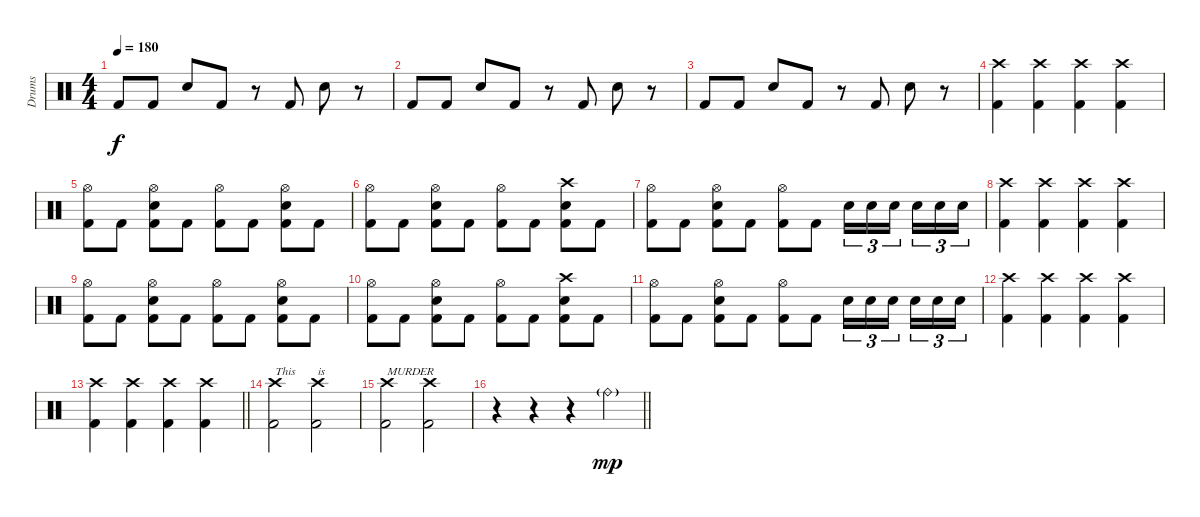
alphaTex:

\track ("Drums" "Drums") {instrument percussion}
\staff {score}
\articulation defaults
\ts (4 4)
\tempo 180
\clef neutral
\ks c "Kick (hit) 2".8{dy f} "Kick (hit) 2".8 "Electric Snare (hit)".8 "Kick (hit) 2".8
r.8 "Kick (hit) 2".8 "Electric Snare (hit)".8 r.8 |
"Kick (hit) 2".8 "Kick (hit) 2".8 "Electric Snare (hit)".8 "Kick (hit) 2".8 r.8 "Kick (hit) 2".8 "Electric Snare (hit)".8 r.8 |
"Kick (hit) 2".8 "Kick (hit) 2".8 "Electric Snare (hit)".8 "Kick (hit) 2".8 r.8 "Kick (hit) 2".8 "Electric Snare (hit)".8 r.8 |
("Crash high (hit)" "Kick (hit) 2").4 ("Crash high (hit)" "Kick (hit) 2").4 ("Crash high (hit)" "Kick (hit) 2").4 ("Crash high (hit)" "Kick (hit) 2").4 |
("Hi-Hat (open)" "Kick (hit) 2").8 "Kick (hit) 2".8 ("Hi-Hat (open)" "Electric Snare (hit)" "Kick (hit) 2").8 "Kick (hit) 2".8 ("Hi-Hat (open)" "Kick (hit) 2").8 "Kick (hit) 2".8 ("Hi-Hat (open)" "Electric Snare (hit)" "Kick (hit) 2").8 "Kick (hit) 2".8 |
("Hi-Hat (open)" "Kick (hit) 2").8 "Kick (hit) 2".8 ("Hi-Hat (open)" "Electric Snare (hit)" "Kick (hit) 2").8 "Kick (hit) 2".8 ("Hi-Hat (open)" "Kick (hit) 2").8 "Kick (hit) 2".8 ("Crash high (hit)" "Electric Snare (hit)" "Kick (hit) 2").8 "Kick (hit) 2".8 |
("Hi-Hat (open)" "Kick (hit) 2").8 "Kick (hit) 2".8 ("Hi-Hat (open)" "Electric Snare (hit)" "Kick (hit) 2").8 "Kick (hit) 2".8 ("Hi-Hat (open)" "Kick (hit) 2").8 "Kick (hit) 2".8 "Electric Snare (hit)".16{tu (3 2)} "Electric Snare (hit)".16{tu (3 2)} "Electric Snare (hit)".16{tu (3 2) beam splitsecondary} "Electric Snare (hit)".16{tu (3 2)} "Electric Snare (hit)".16{tu (3 2)} "Electric Snare (hit)".16{tu (3 2)} |
("Crash high (hit)" "Kick (hit) 2").4 ("Crash high (hit)" "Kick (hit) 2").4 ("Crash high (hit)" "Kick (hit) 2").4 ("Crash high (hit)" "Kick (hit) 2").4 |
("Hi-Hat (open)" "Kick (hit) 2").8 "Kick (hit) 2".8 ("Hi-Hat (open)" "Electric Snare (hit)" "Kick (hit) 2").8 "Kick (hit) 2".8 ("Hi-Hat (open)" "Kick (hit) 2").8 "Kick (hit) 2".8 ("Hi-Hat (open)" "Electric Snare (hit)" "Kick (hit) 2").8 "Kick (hit) 2".8 |
("Hi-Hat (open)" "Kick (hit) 2").8 "Kick (hit) 2".8 ("Hi-Hat (open)" "Electric Snare (hit)" "Kick (hit) 2").8 "Kick (hit) 2".8 ("Hi-Hat (open)" "Kick (hit) 2").8 "Kick (hit) 2".8 ("Crash high (hit)" "Electric Snare (hit)" "Kick (hit) 2").8 "Kick (hit) 2".8 |
("Hi-Hat (open)" "Kick (hit) 2").8 "Kick (hit) 2".8 ("Hi-Hat (open)" "Electric Snare (hit)" "Kick (hit) 2").8 "Kick (hit) 2".8 ("Hi-Hat (open)" "Kick (hit) 2").8 "Kick (hit) 2".8 "Electric Snare (hit)".16{tu (3 2)} "Electric Snare (hit)".16{tu (3 2)} "Electric Snare (hit)".16{tu (3 2) beam splitsecondary} "Electric Snare (hit)".16{tu (3 2)} "Electric Snare (hit)".16{tu (3 2)} "Electric Snare (hit)".16{tu (3 2)} |
("Crash high (hit)" "Kick (hit) 2").4 ("Crash high (hit)" "Kick (hit) 2").4 ("Crash high (hit)" "Kick (hit) 2").4 ("Crash high (hit)" "Kick (hit) 2").4 |
\barLineRight lightlight
("Crash high (hit)" "Kick (hit) 2").4 ("Crash high (hit)" "Kick (hit) 2").4 ("Crash high (hit)" "Kick (hit) 2").4 ("Crash high (hit)" "Kick (hit) 2").4 |
("Crash high (hit)" "Kick (hit) 2").2{txt "This"} ("Crash high (hit)" "Kick (hit) 2").2{txt "is"} |
("Crash high (hit)" "Kick (hit) 2").2{txt "MURDER"} ("Crash high (hit)" "Kick (hit) 2").2 |
\barLineRight lightlight
r.4 r.4 r.4 "Ride (bell)"{g}.4{dy mp}
